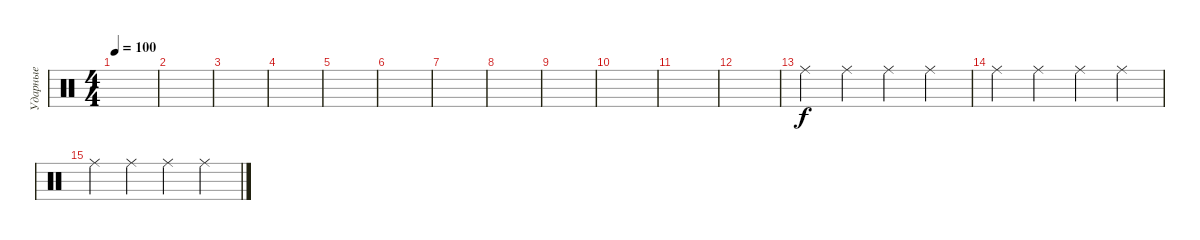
\track ("Ударные" "Ударные") {instrument percussion}
\staff {score}
\articulation defaults
\ts (4 4)
\tempo 100
\clef neutral
\ks c
|
|
|
|
|
|
|
|
|
|
|
|
"Ride (middle)".4{dy f} "Ride (middle)".4 "Ride (middle)".4 "Ride (middle)".4 |
"Ride (middle)".4 "Ride (middle)".4 "Ride (middle)".4 "Ride (middle)".4 |
"Ride (middle)".4 "Ride (middle)".4 "Ride (middle)".4 "Ride (middle)".4
